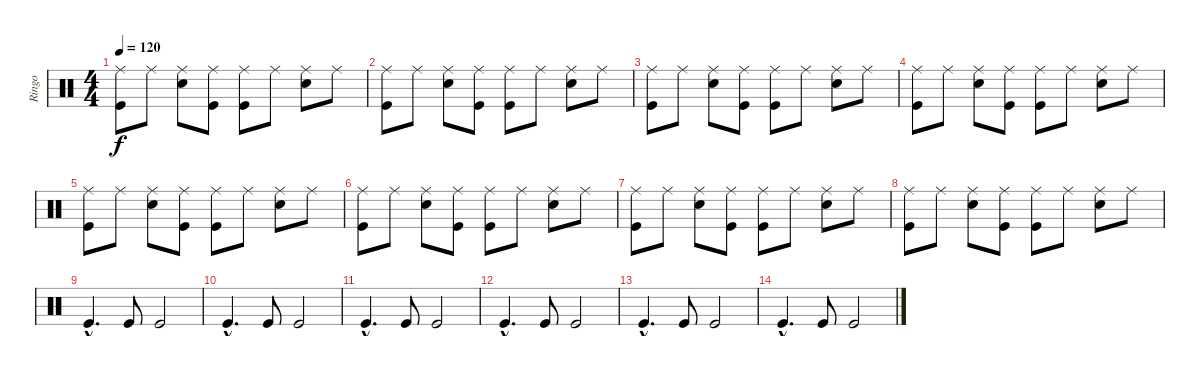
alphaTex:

\track ("Ringo" "Ringo") {instrument percussion}
\staff {score}
\articulation defaults
\ts (4 4)
\tempo 120
\clef neutral
\ks c
("Ride (middle)" "Kick (hit)").8{dy f} "Ride (middle)".8 ("Ride (middle)" "Snare (hit) 2").8 ("Ride (middle)" "Kick (hit)").8 ("Ride (middle)" "Kick (hit)").8 "Ride (middle)".8 ("Ride (middle)" "Snare (hit) 2").8 "Ride (middle)".8 |
("Ride (middle)" "Kick (hit)").8 "Ride (middle)".8 ("Ride (middle)" "Snare (hit) 2").8 ("Ride (middle)" "Kick (hit)").8 ("Ride (middle)" "Kick (hit)").8 "Ride (middle)".8 ("Ride (middle)" "Snare (hit) 2").8 "Ride (middle)".8 |
("Ride (middle)" "Kick (hit)").8 "Ride (middle)".8 ("Ride (middle)" "Snare (hit) 2").8 ("Ride (middle)" "Kick (hit)").8 ("Ride (middle)" "Kick (hit)").8 "Ride (middle)".8 ("Ride (middle)" "Snare (hit) 2").8 "Ride (middle)".8 |
("Ride (middle)" "Kick (hit)").8 "Ride (middle)".8 ("Ride (middle)" "Snare (hit) 2").8 ("Ride (middle)" "Kick (hit)").8 ("Ride (middle)" "Kick (hit)").8 "Ride (middle)".8 ("Ride (middle)" "Snare (hit) 2").8 "Ride (middle)".8 |
("Ride (middle)" "Kick (hit)").8 "Ride (middle)".8 ("Ride (middle)" "Snare (hit) 2").8 ("Ride (middle)" "Kick (hit)").8 ("Ride (middle)" "Kick (hit)").8 "Ride (middle)".8 ("Ride (middle)" "Snare (hit) 2").8 "Ride (middle)".8 |
("Ride (middle)" "Kick (hit)").8 "Ride (middle)".8 ("Ride (middle)" "Snare (hit) 2").8 ("Ride (middle)" "Kick (hit)").8 ("Ride (middle)" "Kick (hit)").8 "Ride (middle)".8 ("Ride (middle)" "Snare (hit) 2").8 "Ride (middle)".8 |
("Ride (middle)" "Kick (hit)").8 "Ride (middle)".8 ("Ride (middle)" "Snare (hit) 2").8 ("Ride (middle)" "Kick (hit)").8 ("Ride (middle)" "Kick (hit)").8 "Ride (middle)".8 ("Ride (middle)" "Snare (hit) 2").8 "Ride (middle)".8 |
("Ride (middle)" "Kick (hit)").8 "Ride (middle)".8 ("Ride (middle)" "Snare (hit) 2").8 ("Ride (middle)" "Kick (hit)").8 ("Ride (middle)" "Kick (hit)").8 "Ride (middle)".8 ("Ride (middle)" "Snare (hit) 2").8 "Ride (middle)".8 |
"Kick (hit)"{hac}.4{d} "Kick (hit)".8 "Kick (hit)".2 |
"Kick (hit)"{hac}.4{d} "Kick (hit)".8 "Kick (hit)".2 |
"Kick (hit)"{hac}.4{d volume 12} "Kick (hit)".8{volume 11} "Kick (hit)".2{volume 10} |
"Kick (hit)"{hac}.4{d volume 9} "Kick (hit)".8{volume 8} "Kick (hit)".2{volume 7} |
"Kick (hit)"{hac}.4{d volume 6} "Kick (hit)".8{volume 5} "Kick (hit)".2{volume 4} |
"Kick (hit)"{hac}.4{d volume 3} "Kick (hit)".8{volume 2} "Kick (hit)".2{volume 1}
